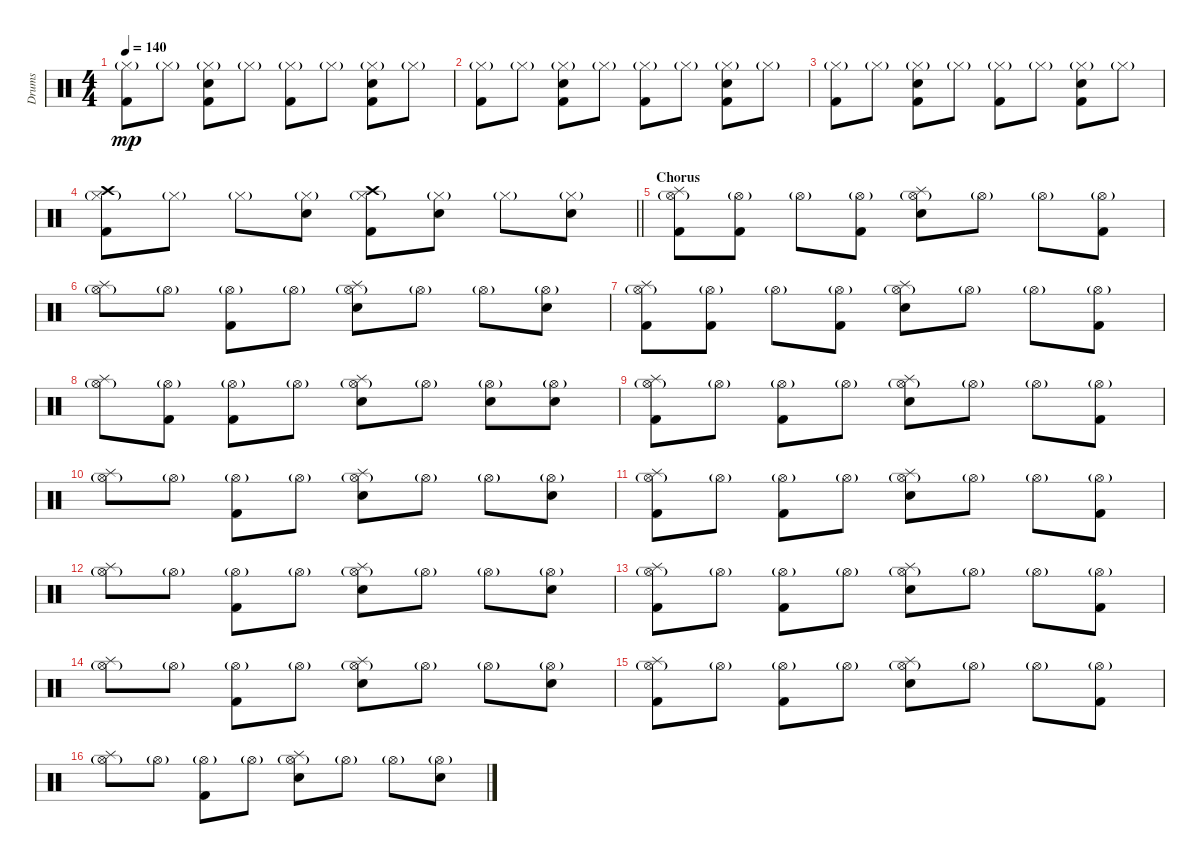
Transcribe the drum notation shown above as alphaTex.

\track ("Drums" "Drums") {instrument percussion}
\staff {score}
\articulation defaults
\ts (4 4)
\tempo 140
\clef neutral
\ks c
("Hi-Hat (closed)"{g} "Kick (hit) 2").8{dy mp} "Hi-Hat (closed)"{g}.8 ("Hi-Hat (closed)"{g} "Electric Snare (hit)" "Kick (hit) 2").8 "Hi-Hat (closed)"{g}.8 ("Hi-Hat (closed)"{g} "Kick (hit) 2").8 "Hi-Hat (closed)"{g}.8 ("Hi-Hat (closed)"{g} "Electric Snare (hit)" "Kick (hit) 2").8 "Hi-Hat (closed)"{g}.8 |
("Hi-Hat (closed)"{g} "Kick (hit) 2").8 "Hi-Hat (closed)"{g}.8 ("Hi-Hat (closed)"{g} "Electric Snare (hit)" "Kick (hit) 2").8 "Hi-Hat (closed)"{g}.8 ("Hi-Hat (closed)"{g} "Kick (hit) 2").8 "Hi-Hat (closed)"{g}.8 ("Hi-Hat (closed)"{g} "Electric Snare (hit)" "Kick (hit) 2").8 "Hi-Hat (closed)"{g}.8 |
("Hi-Hat (closed)"{g} "Kick (hit) 2").8 "Hi-Hat (closed)"{g}.8 ("Hi-Hat (closed)"{g} "Electric Snare (hit)" "Kick (hit) 2").8 "Hi-Hat (closed)"{g}.8 ("Hi-Hat (closed)"{g} "Kick (hit) 2").8 "Hi-Hat (closed)"{g}.8 ("Hi-Hat (closed)"{g} "Electric Snare (hit)" "Kick (hit) 2").8 "Hi-Hat (closed)"{g}.8 |
\barLineRight lightlight
("Hi-Hat (closed)"{g} "Crash high (hit)" "Kick (hit) 2").8 "Hi-Hat (closed)"{g}.8 "Hi-Hat (closed)"{g}.8 ("Hi-Hat (closed)"{g} "Electric Snare (hit)").8 ("Hi-Hat (closed)"{g} "Crash high (hit)" "Kick (hit) 2").8 ("Hi-Hat (closed)"{g} "Electric Snare (hit)").8 "Hi-Hat (closed)"{g}.8 ("Hi-Hat (closed)"{g} "Electric Snare (hit)").8 |
\section ("" "Chorus")
("Hi-Hat (open)"{g} "Splash (hit)" "Kick (hit) 2").8 ("Hi-Hat (open)"{g} "Kick (hit) 2").8 "Hi-Hat (open)"{g}.8 ("Hi-Hat (open)"{g} "Kick (hit) 2").8 ("Hi-Hat (open)"{g} "Splash (hit)" "Electric Snare (hit)").8 "Hi-Hat (open)"{g}.8 "Hi-Hat (open)"{g}.8 ("Hi-Hat (open)"{g} "Kick (hit) 2").8 |
("Hi-Hat (open)"{g} "Splash (hit)").8 "Hi-Hat (open)"{g}.8 ("Hi-Hat (open)"{g} "Kick (hit) 2").8 "Hi-Hat (open)"{g}.8 ("Hi-Hat (open)"{g} "Splash (hit)" "Electric Snare (hit)").8 "Hi-Hat (open)"{g}.8 "Hi-Hat (open)"{g}.8 ("Hi-Hat (open)"{g} "Electric Snare (hit)").8 |
("Hi-Hat (open)"{g} "Splash (hit)" "Kick (hit) 2").8 ("Hi-Hat (open)"{g} "Kick (hit) 2").8 "Hi-Hat (open)"{g}.8 ("Hi-Hat (open)"{g} "Kick (hit) 2").8 ("Hi-Hat (open)"{g} "Splash (hit)" "Electric Snare (hit)").8 "Hi-Hat (open)"{g}.8 "Hi-Hat (open)"{g}.8 ("Hi-Hat (open)"{g} "Kick (hit) 2").8 |
("Hi-Hat (open)"{g} "Splash (hit)").8 ("Hi-Hat (open)"{g} "Kick (hit) 2").8 ("Hi-Hat (open)"{g} "Kick (hit) 2").8 "Hi-Hat (open)"{g}.8 ("Hi-Hat (open)"{g} "Splash (hit)" "Electric Snare (hit)").8 "Hi-Hat (open)"{g}.8 ("Hi-Hat (open)"{g} "Electric Snare (hit)").8 ("Hi-Hat (open)"{g} "Electric Snare (hit)").8 |
("Hi-Hat (open)"{g} "Splash (hit)" "Kick (hit) 2").8 "Hi-Hat (open)"{g}.8 ("Hi-Hat (open)"{g} "Kick (hit) 2").8 "Hi-Hat (open)"{g}.8 ("Hi-Hat (open)"{g} "Splash (hit)" "Electric Snare (hit)").8 "Hi-Hat (open)"{g}.8 "Hi-Hat (open)"{g}.8 ("Hi-Hat (open)"{g} "Kick (hit) 2").8 |
("Hi-Hat (open)"{g} "Splash (hit)").8 "Hi-Hat (open)"{g}.8 ("Hi-Hat (open)"{g} "Kick (hit) 2").8 "Hi-Hat (open)"{g}.8 ("Hi-Hat (open)"{g} "Splash (hit)" "Electric Snare (hit)").8 "Hi-Hat (open)"{g}.8 "Hi-Hat (open)"{g}.8 ("Hi-Hat (open)"{g} "Electric Snare (hit)").8 |
("Hi-Hat (open)"{g} "Splash (hit)" "Kick (hit) 2").8 "Hi-Hat (open)"{g}.8 ("Hi-Hat (open)"{g} "Kick (hit) 2").8 "Hi-Hat (open)"{g}.8 ("Hi-Hat (open)"{g} "Splash (hit)" "Electric Snare (hit)").8 "Hi-Hat (open)"{g}.8 "Hi-Hat (open)"{g}.8 ("Hi-Hat (open)"{g} "Kick (hit) 2").8 |
("Hi-Hat (open)"{g} "Splash (hit)").8 "Hi-Hat (open)"{g}.8 ("Hi-Hat (open)"{g} "Kick (hit) 2").8 "Hi-Hat (open)"{g}.8 ("Hi-Hat (open)"{g} "Splash (hit)" "Electric Snare (hit)").8 "Hi-Hat (open)"{g}.8 "Hi-Hat (open)"{g}.8 ("Hi-Hat (open)"{g} "Electric Snare (hit)").8 |
("Hi-Hat (open)"{g} "Splash (hit)" "Kick (hit) 2").8 "Hi-Hat (open)"{g}.8 ("Hi-Hat (open)"{g} "Kick (hit) 2").8 "Hi-Hat (open)"{g}.8 ("Hi-Hat (open)"{g} "Splash (hit)" "Electric Snare (hit)").8 "Hi-Hat (open)"{g}.8 "Hi-Hat (open)"{g}.8 ("Hi-Hat (open)"{g} "Kick (hit) 2").8 |
("Hi-Hat (open)"{g} "Splash (hit)").8 "Hi-Hat (open)"{g}.8 ("Hi-Hat (open)"{g} "Kick (hit) 2").8 "Hi-Hat (open)"{g}.8 ("Hi-Hat (open)"{g} "Splash (hit)" "Electric Snare (hit)").8 "Hi-Hat (open)"{g}.8 "Hi-Hat (open)"{g}.8 ("Hi-Hat (open)"{g} "Electric Snare (hit)").8 |
("Hi-Hat (open)"{g} "Splash (hit)" "Kick (hit) 2").8 "Hi-Hat (open)"{g}.8 ("Hi-Hat (open)"{g} "Kick (hit) 2").8 "Hi-Hat (open)"{g}.8 ("Hi-Hat (open)"{g} "Splash (hit)" "Electric Snare (hit)").8 "Hi-Hat (open)"{g}.8 "Hi-Hat (open)"{g}.8 ("Hi-Hat (open)"{g} "Kick (hit) 2").8 |
("Hi-Hat (open)"{g} "Splash (hit)").8 "Hi-Hat (open)"{g}.8 ("Hi-Hat (open)"{g} "Kick (hit) 2").8 "Hi-Hat (open)"{g}.8 ("Hi-Hat (open)"{g} "Splash (hit)" "Electric Snare (hit)").8 "Hi-Hat (open)"{g}.8 "Hi-Hat (open)"{g}.8 ("Hi-Hat (open)"{g} "Electric Snare (hit)").8
